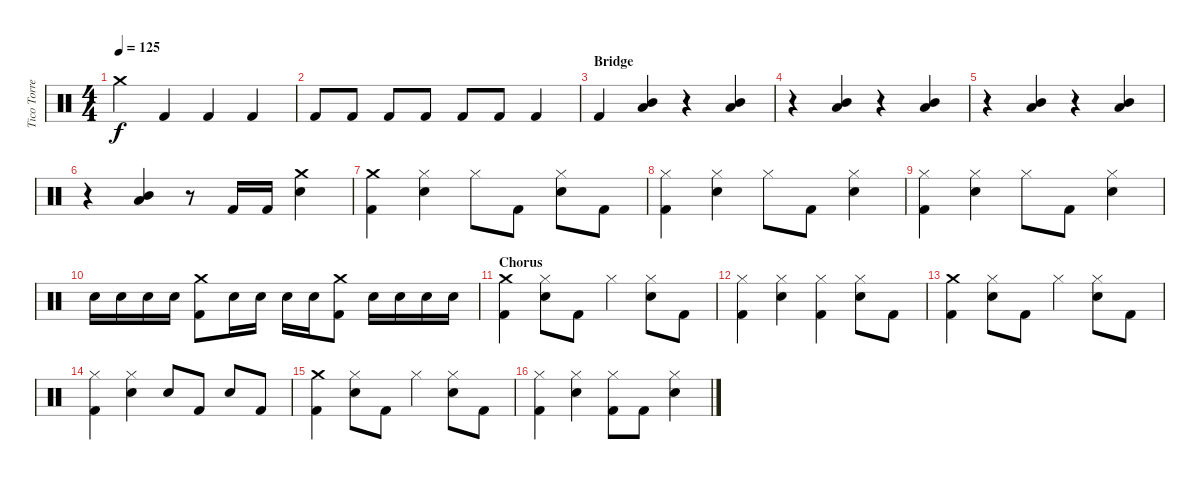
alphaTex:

\track ("Tico Torres" "Tico Torre") {instrument percussion}
\staff {score}
\articulation defaults
\ts (4 4)
\tempo 125
\clef neutral
\ks c "Crash medium (hit)".4{dy f} "Kick (hit) 2".4 "Kick (hit) 2".4 "Kick (hit) 2".4
|
"Kick (hit) 2".8 "Kick (hit) 2".8 "Kick (hit) 2".8 "Kick (hit) 2".8 "Kick (hit) 2".8 "Kick (hit) 2".8 "Kick (hit) 2".4 |
\section ("" "Bridge")
"Kick (hit) 2".4 ("Mid Tom (hit)" "Low Tom (hit)").4 r.4 ("Mid Tom (hit)" "Low Tom (hit)").4 |
r.4 ("Mid Tom (hit)" "Low Tom (hit)").4 r.4 ("Mid Tom (hit)" "Low Tom (hit)").4 |
r.4 ("Mid Tom (hit)" "Low Tom (hit)").4 r.4 ("Mid Tom (hit)" "Low Tom (hit)").4 |
r.4 ("Mid Tom (hit)" "Low Tom (hit)").4 r.8 "Kick (hit) 2".16 "Kick (hit) 2".16 ("Crash medium (hit)" "Snare (hit) 2").4 |
("Crash medium (hit)" "Kick (hit) 2").4 ("Hi-Hat (closed)" "Snare (hit) 2").4 "Hi-Hat (closed)".8 "Kick (hit) 2".8 ("Hi-Hat (closed)" "Snare (hit) 2").8 "Kick (hit) 2".8 |
("Hi-Hat (closed)" "Kick (hit) 2").4 ("Hi-Hat (closed)" "Snare (hit) 2").4 "Hi-Hat (closed)".8 "Kick (hit) 2".8 ("Hi-Hat (closed)" "Snare (hit) 2").4 |
("Hi-Hat (closed)" "Kick (hit) 2").4 ("Hi-Hat (closed)" "Snare (hit) 2").4 "Hi-Hat (closed)".8 "Kick (hit) 2".8 ("Hi-Hat (closed)" "Snare (hit) 2").4 |
"Snare (hit) 2".16 "Snare (hit) 2".16 "Snare (hit) 2".16 "Snare (hit) 2".16 ("Crash medium (hit)" "Kick (hit) 2").8 "Snare (hit) 2".16 "Snare (hit) 2".16 "Snare (hit) 2".16 "Snare (hit) 2".16 ("Crash medium (hit)" "Kick (hit) 2").8 "Snare (hit) 2".16 "Snare (hit) 2".16 "Snare (hit) 2".16 "Snare (hit) 2".16 |
\section ("" "Chorus")
("Crash medium (hit)" "Kick (hit) 2").4 ("Hi-Hat (closed)" "Snare (hit) 2").8 "Kick (hit) 2".8 "Hi-Hat (closed)".4 ("Hi-Hat (closed)" "Snare (hit) 2").8 "Kick (hit) 2".8 |
("Hi-Hat (closed)" "Kick (hit) 2").4 ("Hi-Hat (closed)" "Snare (hit) 2").4 ("Hi-Hat (closed)" "Kick (hit) 2").4 ("Hi-Hat (closed)" "Snare (hit) 2").8 "Kick (hit) 2".8 |
("Crash medium (hit)" "Kick (hit) 2").4 ("Hi-Hat (closed)" "Snare (hit) 2").8 "Kick (hit) 2".8 "Hi-Hat (closed)".4 ("Hi-Hat (closed)" "Snare (hit) 2").8 "Kick (hit) 2".8 |
("Hi-Hat (closed)" "Kick (hit) 2").4 ("Hi-Hat (closed)" "Snare (hit) 2").4 "Snare (hit) 2".8 "Kick (hit) 2".8 "Snare (hit) 2".8 "Kick (hit) 2".8 |
("Crash medium (hit)" "Kick (hit) 2").4 ("Hi-Hat (closed)" "Snare (hit) 2").8 "Kick (hit) 2".8 "Hi-Hat (closed)".4 ("Hi-Hat (closed)" "Snare (hit) 2").8 "Kick (hit) 2".8 |
("Hi-Hat (closed)" "Kick (hit) 2").4 ("Hi-Hat (closed)" "Snare (hit) 2").4 ("Hi-Hat (closed)" "Kick (hit) 2").8 "Kick (hit) 2".8 ("Hi-Hat (closed)" "Snare (hit) 2").4
